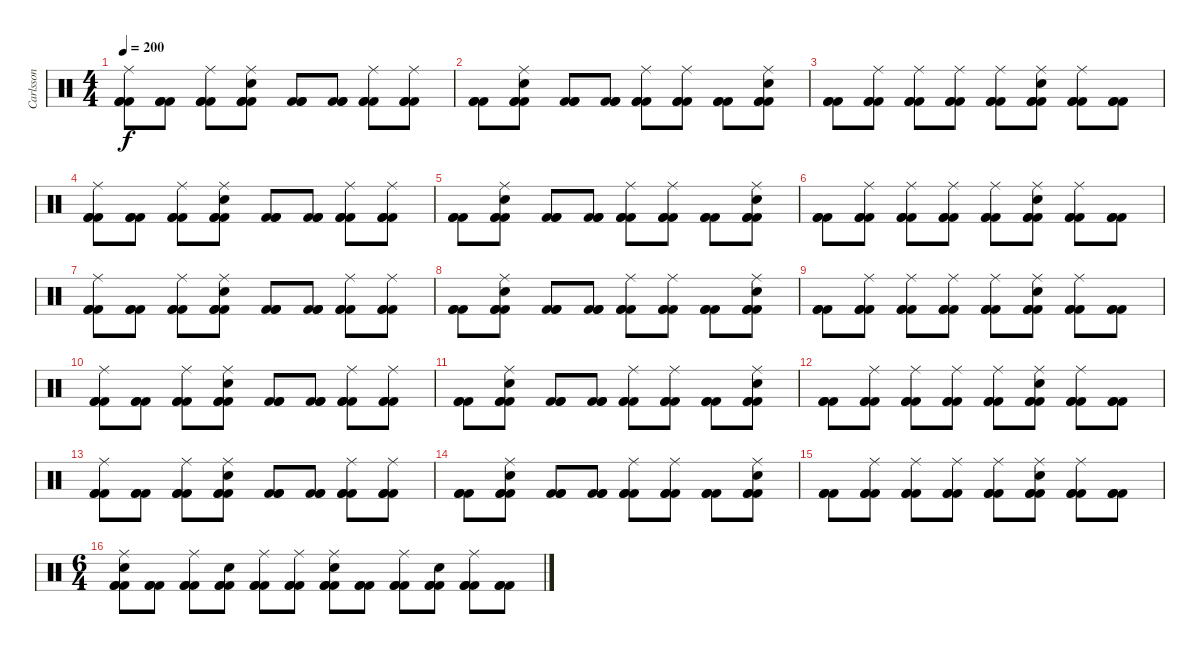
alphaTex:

\track ("Carlsson" "Carlsson") {instrument percussion}
\staff {score}
\articulation defaults
\ts (4 4)
\tempo 200
\clef neutral
\ks c
("Ride (middle)" "Kick (hit) 2" "Kick (hit) 2" "Kick (hit) 2").8{dy f} ("Kick (hit) 2" "Kick (hit) 2" "Kick (hit) 2").8 ("Ride (middle)" "Kick (hit) 2" "Kick (hit) 2" "Kick (hit) 2").8 ("Ride (middle)" "Snare (hit) 2" "Kick (hit) 2" "Kick (hit) 2" "Kick (hit) 2").8 ("Kick (hit) 2" "Kick (hit) 2" "Kick (hit) 2").8 ("Kick (hit) 2" "Kick (hit) 2" "Kick (hit) 2").8 ("Ride (middle)" "Kick (hit) 2" "Kick (hit) 2" "Kick (hit) 2").8 ("Ride (middle)" "Kick (hit) 2" "Kick (hit) 2" "Kick (hit) 2").8 |
("Kick (hit) 2" "Kick (hit) 2" "Kick (hit) 2").8 ("Ride (middle)" "Snare (hit) 2" "Kick (hit) 2" "Kick (hit) 2" "Kick (hit) 2").8 ("Kick (hit) 2" "Kick (hit) 2" "Kick (hit) 2").8 ("Kick (hit) 2" "Kick (hit) 2" "Kick (hit) 2").8 ("Ride (middle)" "Kick (hit) 2" "Kick (hit) 2" "Kick (hit) 2").8 ("Ride (middle)" "Kick (hit) 2" "Kick (hit) 2" "Kick (hit) 2").8 ("Kick (hit) 2" "Kick (hit) 2" "Kick (hit) 2").8 ("Ride (middle)" "Snare (hit) 2" "Kick (hit) 2" "Kick (hit) 2" "Kick (hit) 2").8 |
("Kick (hit) 2" "Kick (hit) 2" "Kick (hit) 2").8 ("Ride (middle)" "Kick (hit) 2" "Kick (hit) 2" "Kick (hit) 2").8 ("Ride (middle)" "Kick (hit) 2" "Kick (hit) 2" "Kick (hit) 2").8 ("Ride (middle)" "Kick (hit) 2" "Kick (hit) 2" "Kick (hit) 2").8 ("Ride (middle)" "Kick (hit) 2" "Kick (hit) 2" "Kick (hit) 2").8 ("Ride (middle)" "Snare (hit) 2" "Kick (hit) 2" "Kick (hit) 2" "Kick (hit) 2").8 ("Ride (middle)" "Kick (hit) 2" "Kick (hit) 2" "Kick (hit) 2").8 ("Kick (hit) 2" "Kick (hit) 2" "Kick (hit) 2").8 |
("Ride (middle)" "Kick (hit) 2" "Kick (hit) 2" "Kick (hit) 2").8 ("Kick (hit) 2" "Kick (hit) 2" "Kick (hit) 2").8 ("Ride (middle)" "Kick (hit) 2" "Kick (hit) 2" "Kick (hit) 2").8 ("Ride (middle)" "Snare (hit) 2" "Kick (hit) 2" "Kick (hit) 2" "Kick (hit) 2").8 ("Kick (hit) 2" "Kick (hit) 2" "Kick (hit) 2").8 ("Kick (hit) 2" "Kick (hit) 2" "Kick (hit) 2").8 ("Ride (middle)" "Kick (hit) 2" "Kick (hit) 2" "Kick (hit) 2").8 ("Ride (middle)" "Kick (hit) 2" "Kick (hit) 2" "Kick (hit) 2").8 |
("Kick (hit) 2" "Kick (hit) 2" "Kick (hit) 2").8 ("Ride (middle)" "Snare (hit) 2" "Kick (hit) 2" "Kick (hit) 2" "Kick (hit) 2").8 ("Kick (hit) 2" "Kick (hit) 2" "Kick (hit) 2").8 ("Kick (hit) 2" "Kick (hit) 2" "Kick (hit) 2").8 ("Ride (middle)" "Kick (hit) 2" "Kick (hit) 2" "Kick (hit) 2").8 ("Ride (middle)" "Kick (hit) 2" "Kick (hit) 2" "Kick (hit) 2").8 ("Kick (hit) 2" "Kick (hit) 2" "Kick (hit) 2").8 ("Ride (middle)" "Snare (hit) 2" "Kick (hit) 2" "Kick (hit) 2" "Kick (hit) 2").8 |
("Kick (hit) 2" "Kick (hit) 2" "Kick (hit) 2").8 ("Ride (middle)" "Kick (hit) 2" "Kick (hit) 2" "Kick (hit) 2").8 ("Ride (middle)" "Kick (hit) 2" "Kick (hit) 2" "Kick (hit) 2").8 ("Ride (middle)" "Kick (hit) 2" "Kick (hit) 2" "Kick (hit) 2").8 ("Ride (middle)" "Kick (hit) 2" "Kick (hit) 2" "Kick (hit) 2").8 ("Ride (middle)" "Snare (hit) 2" "Kick (hit) 2" "Kick (hit) 2" "Kick (hit) 2").8 ("Ride (middle)" "Kick (hit) 2" "Kick (hit) 2" "Kick (hit) 2").8 ("Kick (hit) 2" "Kick (hit) 2" "Kick (hit) 2").8 |
("Ride (middle)" "Kick (hit) 2" "Kick (hit) 2" "Kick (hit) 2").8 ("Kick (hit) 2" "Kick (hit) 2" "Kick (hit) 2").8 ("Ride (middle)" "Kick (hit) 2" "Kick (hit) 2" "Kick (hit) 2").8 ("Ride (middle)" "Snare (hit) 2" "Kick (hit) 2" "Kick (hit) 2" "Kick (hit) 2").8 ("Kick (hit) 2" "Kick (hit) 2" "Kick (hit) 2").8 ("Kick (hit) 2" "Kick (hit) 2" "Kick (hit) 2").8 ("Ride (middle)" "Kick (hit) 2" "Kick (hit) 2" "Kick (hit) 2").8 ("Ride (middle)" "Kick (hit) 2" "Kick (hit) 2" "Kick (hit) 2").8 |
("Kick (hit) 2" "Kick (hit) 2" "Kick (hit) 2").8 ("Ride (middle)" "Snare (hit) 2" "Kick (hit) 2" "Kick (hit) 2" "Kick (hit) 2").8 ("Kick (hit) 2" "Kick (hit) 2" "Kick (hit) 2").8 ("Kick (hit) 2" "Kick (hit) 2" "Kick (hit) 2").8 ("Ride (middle)" "Kick (hit) 2" "Kick (hit) 2" "Kick (hit) 2").8 ("Ride (middle)" "Kick (hit) 2" "Kick (hit) 2" "Kick (hit) 2").8 ("Kick (hit) 2" "Kick (hit) 2" "Kick (hit) 2").8 ("Ride (middle)" "Snare (hit) 2" "Kick (hit) 2" "Kick (hit) 2" "Kick (hit) 2").8 |
("Kick (hit) 2" "Kick (hit) 2" "Kick (hit) 2").8 ("Ride (middle)" "Kick (hit) 2" "Kick (hit) 2" "Kick (hit) 2").8 ("Ride (middle)" "Kick (hit) 2" "Kick (hit) 2" "Kick (hit) 2").8 ("Ride (middle)" "Kick (hit) 2" "Kick (hit) 2" "Kick (hit) 2").8 ("Ride (middle)" "Kick (hit) 2" "Kick (hit) 2" "Kick (hit) 2").8 ("Ride (middle)" "Snare (hit) 2" "Kick (hit) 2" "Kick (hit) 2" "Kick (hit) 2").8 ("Ride (middle)" "Kick (hit) 2" "Kick (hit) 2" "Kick (hit) 2").8 ("Kick (hit) 2" "Kick (hit) 2" "Kick (hit) 2").8 |
("Ride (middle)" "Kick (hit) 2" "Kick (hit) 2" "Kick (hit) 2").8 ("Kick (hit) 2" "Kick (hit) 2" "Kick (hit) 2").8 ("Ride (middle)" "Kick (hit) 2" "Kick (hit) 2" "Kick (hit) 2").8 ("Ride (middle)" "Snare (hit) 2" "Kick (hit) 2" "Kick (hit) 2" "Kick (hit) 2").8 ("Kick (hit) 2" "Kick (hit) 2" "Kick (hit) 2").8 ("Kick (hit) 2" "Kick (hit) 2" "Kick (hit) 2").8 ("Ride (middle)" "Kick (hit) 2" "Kick (hit) 2" "Kick (hit) 2").8 ("Ride (middle)" "Kick (hit) 2" "Kick (hit) 2" "Kick (hit) 2").8 |
("Kick (hit) 2" "Kick (hit) 2" "Kick (hit) 2").8 ("Ride (middle)" "Snare (hit) 2" "Kick (hit) 2" "Kick (hit) 2" "Kick (hit) 2").8 ("Kick (hit) 2" "Kick (hit) 2" "Kick (hit) 2").8 ("Kick (hit) 2" "Kick (hit) 2" "Kick (hit) 2").8 ("Ride (middle)" "Kick (hit) 2" "Kick (hit) 2" "Kick (hit) 2").8 ("Ride (middle)" "Kick (hit) 2" "Kick (hit) 2" "Kick (hit) 2").8 ("Kick (hit) 2" "Kick (hit) 2" "Kick (hit) 2").8 ("Ride (middle)" "Snare (hit) 2" "Kick (hit) 2" "Kick (hit) 2" "Kick (hit) 2").8 |
("Kick (hit) 2" "Kick (hit) 2" "Kick (hit) 2").8 ("Ride (middle)" "Kick (hit) 2" "Kick (hit) 2" "Kick (hit) 2").8 ("Ride (middle)" "Kick (hit) 2" "Kick (hit) 2" "Kick (hit) 2").8 ("Ride (middle)" "Kick (hit) 2" "Kick (hit) 2" "Kick (hit) 2").8 ("Ride (middle)" "Kick (hit) 2" "Kick (hit) 2" "Kick (hit) 2").8 ("Ride (middle)" "Snare (hit) 2" "Kick (hit) 2" "Kick (hit) 2" "Kick (hit) 2").8 ("Ride (middle)" "Kick (hit) 2" "Kick (hit) 2" "Kick (hit) 2").8 ("Kick (hit) 2" "Kick (hit) 2" "Kick (hit) 2").8 |
("Ride (middle)" "Kick (hit) 2" "Kick (hit) 2" "Kick (hit) 2").8 ("Kick (hit) 2" "Kick (hit) 2" "Kick (hit) 2").8 ("Ride (middle)" "Kick (hit) 2" "Kick (hit) 2" "Kick (hit) 2").8 ("Ride (middle)" "Snare (hit) 2" "Kick (hit) 2" "Kick (hit) 2" "Kick (hit) 2").8 ("Kick (hit) 2" "Kick (hit) 2" "Kick (hit) 2").8 ("Kick (hit) 2" "Kick (hit) 2" "Kick (hit) 2").8 ("Ride (middle)" "Kick (hit) 2" "Kick (hit) 2" "Kick (hit) 2").8 ("Ride (middle)" "Kick (hit) 2" "Kick (hit) 2" "Kick (hit) 2").8 |
("Kick (hit) 2" "Kick (hit) 2" "Kick (hit) 2").8 ("Ride (middle)" "Snare (hit) 2" "Kick (hit) 2" "Kick (hit) 2" "Kick (hit) 2").8 ("Kick (hit) 2" "Kick (hit) 2" "Kick (hit) 2").8 ("Kick (hit) 2" "Kick (hit) 2" "Kick (hit) 2").8 ("Ride (middle)" "Kick (hit) 2" "Kick (hit) 2" "Kick (hit) 2").8 ("Ride (middle)" "Kick (hit) 2" "Kick (hit) 2" "Kick (hit) 2").8 ("Kick (hit) 2" "Kick (hit) 2" "Kick (hit) 2").8 ("Ride (middle)" "Snare (hit) 2" "Kick (hit) 2" "Kick (hit) 2" "Kick (hit) 2").8 |
("Kick (hit) 2" "Kick (hit) 2" "Kick (hit) 2").8 ("Ride (middle)" "Kick (hit) 2" "Kick (hit) 2" "Kick (hit) 2").8 ("Ride (middle)" "Kick (hit) 2" "Kick (hit) 2" "Kick (hit) 2").8 ("Ride (middle)" "Kick (hit) 2" "Kick (hit) 2" "Kick (hit) 2").8 ("Ride (middle)" "Kick (hit) 2" "Kick (hit) 2" "Kick (hit) 2").8 ("Ride (middle)" "Snare (hit) 2" "Kick (hit) 2" "Kick (hit) 2" "Kick (hit) 2").8 ("Ride (middle)" "Kick (hit) 2" "Kick (hit) 2" "Kick (hit) 2").8 ("Kick (hit) 2" "Kick (hit) 2" "Kick (hit) 2").8 |
\ts (6 4)
("Ride (middle)" "Snare (hit) 2" "Kick (hit) 2" "Kick (hit) 2" "Kick (hit) 2").8 ("Kick (hit) 2" "Kick (hit) 2" "Kick (hit) 2").8 ("Ride (middle)" "Kick (hit) 2" "Kick (hit) 2" "Kick (hit) 2").8 ("Snare (hit) 2" "Kick (hit) 2" "Kick (hit) 2" "Kick (hit) 2").8 ("Ride (middle)" "Kick (hit) 2" "Kick (hit) 2" "Kick (hit) 2").8 ("Ride (middle)" "Kick (hit) 2" "Kick (hit) 2" "Kick (hit) 2").8 ("Ride (middle)" "Snare (hit) 2" "Kick (hit) 2" "Kick (hit) 2" "Kick (hit) 2").8 ("Kick (hit) 2" "Kick (hit) 2" "Kick (hit) 2").8 ("Ride (middle)" "Kick (hit) 2" "Kick (hit) 2" "Kick (hit) 2").8 ("Snare (hit) 2" "Kick (hit) 2" "Kick (hit) 2" "Kick (hit) 2").8 ("Ride (middle)" "Kick (hit) 2" "Kick (hit) 2" "Kick (hit) 2").8 ("Kick (hit) 2" "Kick (hit) 2" "Kick (hit) 2").8
